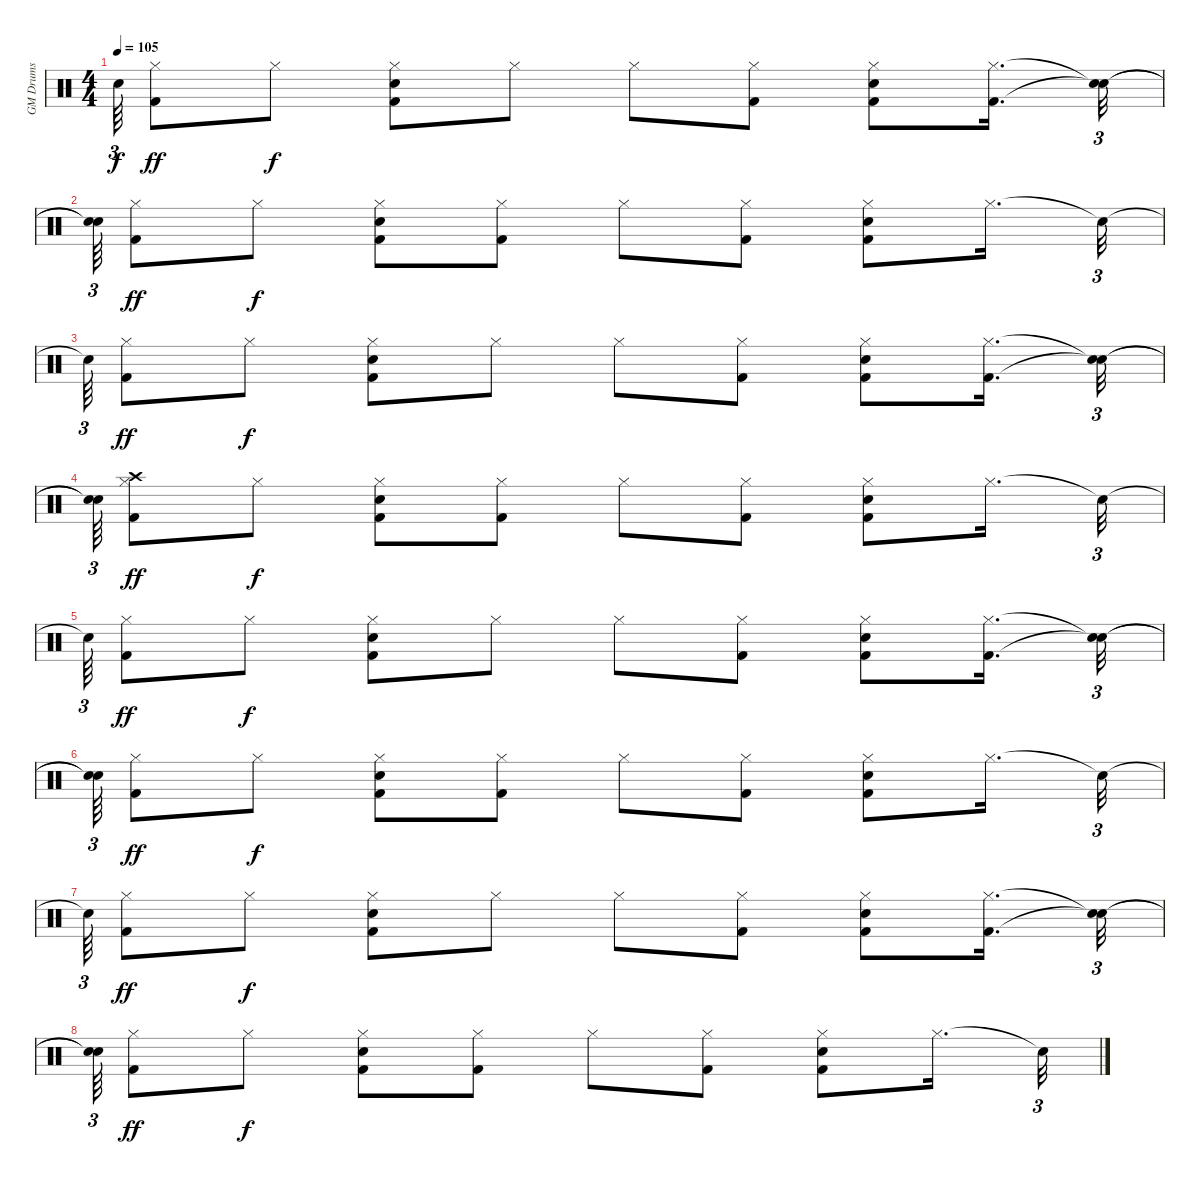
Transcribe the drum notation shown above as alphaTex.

\track ("GM Drums" "GM Drums") {instrument percussion}
\staff {score}
\articulation defaults
\ts (4 4)
\tempo 105
\clef neutral
\ks c "Snare (hit)"{t}.64{tu (3 2) dy f}
("Kick (hit) 2" "Hi-Hat (closed)").8{dy ff} "Hi-Hat (closed)".8{dy f} ("Kick (hit) 2" "Electric Snare (hit)" "Hi-Hat (closed)").8 "Hi-Hat (closed)".8 "Hi-Hat (closed)".8 ("Kick (hit) 2" "Hi-Hat (closed)").8 ("Kick (hit) 2" "Electric Snare (hit)" "Hi-Hat (closed)").8 ("Kick (hit) 2" "Hi-Hat (closed)").16{d} ("Snare (hit)"{t} "Snare (hit)"{t}).32{tu (3 2)} |
("Snare (hit)"{t} "Snare (hit)"{t}).64{tu (3 2)} ("Kick (hit) 2" "Hi-Hat (closed)").8{dy ff} "Hi-Hat (closed)".8{dy f} ("Kick (hit) 2" "Electric Snare (hit)" "Hi-Hat (closed)").8 ("Kick (hit) 2" "Hi-Hat (closed)").8 "Hi-Hat (closed)".8 ("Kick (hit) 2" "Hi-Hat (closed)").8 ("Kick (hit) 2" "Electric Snare (hit)" "Hi-Hat (closed)").8 "Hi-Hat (closed)".16{d} "Snare (hit)"{t}.32{tu (3 2)} |
"Snare (hit)"{t}.64{tu (3 2)} ("Kick (hit) 2" "Hi-Hat (closed)").8{dy ff} "Hi-Hat (closed)".8{dy f} ("Kick (hit) 2" "Electric Snare (hit)" "Hi-Hat (closed)").8 "Hi-Hat (closed)".8 "Hi-Hat (closed)".8 ("Kick (hit) 2" "Hi-Hat (closed)").8 ("Kick (hit) 2" "Electric Snare (hit)" "Hi-Hat (closed)").8 ("Kick (hit) 2" "Hi-Hat (closed)").16{d} ("Snare (hit)"{t} "Snare (hit)"{t}).32{tu (3 2)} |
("Snare (hit)"{t} "Snare (hit)"{t}).64{tu (3 2)} ("Crash high (hit)" "Kick (hit) 2" "Hi-Hat (closed)").8{dy ff} "Hi-Hat (closed)".8{dy f} ("Kick (hit) 2" "Electric Snare (hit)" "Hi-Hat (closed)").8 ("Kick (hit) 2" "Hi-Hat (closed)").8 "Hi-Hat (closed)".8 ("Kick (hit) 2" "Hi-Hat (closed)").8 ("Kick (hit) 2" "Electric Snare (hit)" "Hi-Hat (closed)").8 "Hi-Hat (closed)".16{d} "Snare (hit)"{t}.32{tu (3 2)} |
"Snare (hit)"{t}.64{tu (3 2)} ("Kick (hit) 2" "Hi-Hat (closed)").8{dy ff} "Hi-Hat (closed)".8{dy f} ("Kick (hit) 2" "Electric Snare (hit)" "Hi-Hat (closed)").8 "Hi-Hat (closed)".8 "Hi-Hat (closed)".8 ("Kick (hit) 2" "Hi-Hat (closed)").8 ("Kick (hit) 2" "Electric Snare (hit)" "Hi-Hat (closed)").8 ("Kick (hit) 2" "Hi-Hat (closed)").16{d} ("Snare (hit)"{t} "Snare (hit)"{t}).32{tu (3 2)} |
("Snare (hit)"{t} "Snare (hit)"{t}).64{tu (3 2)} ("Kick (hit) 2" "Hi-Hat (closed)").8{dy ff} "Hi-Hat (closed)".8{dy f} ("Kick (hit) 2" "Electric Snare (hit)" "Hi-Hat (closed)").8 ("Kick (hit) 2" "Hi-Hat (closed)").8 "Hi-Hat (closed)".8 ("Kick (hit) 2" "Hi-Hat (closed)").8 ("Kick (hit) 2" "Electric Snare (hit)" "Hi-Hat (closed)").8 "Hi-Hat (closed)".16{d} "Snare (hit)"{t}.32{tu (3 2)} |
"Snare (hit)"{t}.64{tu (3 2)} ("Kick (hit) 2" "Hi-Hat (closed)").8{dy ff} "Hi-Hat (closed)".8{dy f} ("Kick (hit) 2" "Electric Snare (hit)" "Hi-Hat (closed)").8 "Hi-Hat (closed)".8 "Hi-Hat (closed)".8 ("Kick (hit) 2" "Hi-Hat (closed)").8 ("Kick (hit) 2" "Electric Snare (hit)" "Hi-Hat (closed)").8 ("Kick (hit) 2" "Hi-Hat (closed)").16{d} ("Snare (hit)"{t} "Snare (hit)"{t}).32{tu (3 2)} |
("Snare (hit)"{t} "Snare (hit)"{t}).64{tu (3 2)} ("Kick (hit) 2" "Hi-Hat (closed)").8{dy ff} "Hi-Hat (closed)".8{dy f} ("Kick (hit) 2" "Electric Snare (hit)" "Hi-Hat (closed)").8 ("Kick (hit) 2" "Hi-Hat (closed)").8 "Hi-Hat (closed)".8 ("Kick (hit) 2" "Hi-Hat (closed)").8 ("Kick (hit) 2" "Electric Snare (hit)" "Hi-Hat (closed)").8 "Hi-Hat (closed)".16{d} "Snare (hit)"{t}.32{tu (3 2)}
